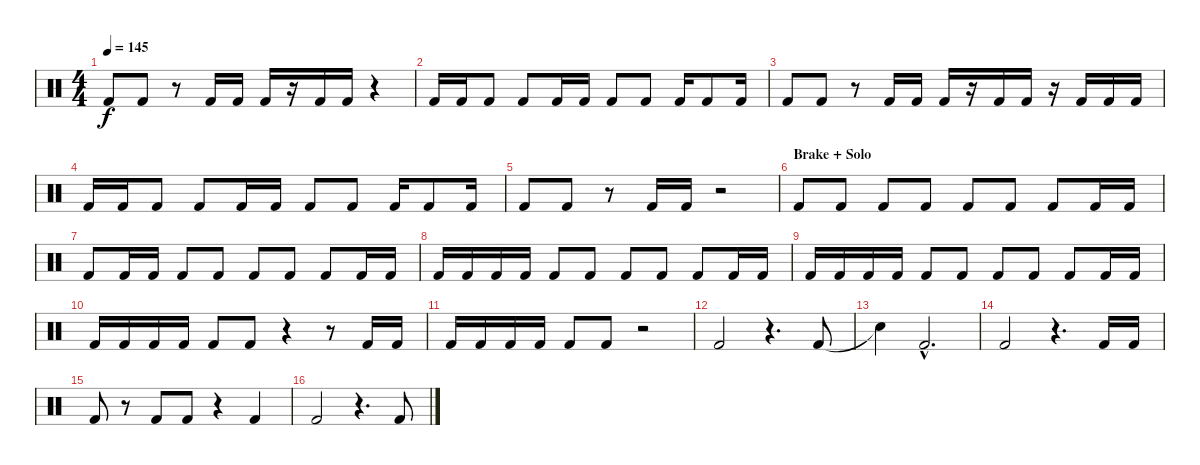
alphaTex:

\track "" {instrument percussion}
\staff {score}
\articulation defaults
\ts (4 4)
\tempo 145
\clef neutral
\ks c "Kick (hit) 2".8{dy f} "Kick (hit) 2".8
r.8 "Kick (hit) 2".16 "Kick (hit) 2".16 "Kick (hit) 2".16 r.16 "Kick (hit) 2".16 "Kick (hit) 2".16 r.4 |
"Kick (hit) 2".16 "Kick (hit) 2".16 "Kick (hit) 2".8 "Kick (hit) 2".8 "Kick (hit) 2".16 "Kick (hit) 2".16 "Kick (hit) 2".8 "Kick (hit) 2".8 "Kick (hit) 2".16 "Kick (hit) 2".8 "Kick (hit) 2".16 |
"Kick (hit) 2".8 "Kick (hit) 2".8 r.8 "Kick (hit) 2".16 "Kick (hit) 2".16 "Kick (hit) 2".16 r.16 "Kick (hit) 2".16 "Kick (hit) 2".16 r.16 "Kick (hit) 2".16 "Kick (hit) 2".16 "Kick (hit) 2".16 |
"Kick (hit) 2".16 "Kick (hit) 2".16 "Kick (hit) 2".8 "Kick (hit) 2".8 "Kick (hit) 2".16 "Kick (hit) 2".16 "Kick (hit) 2".8 "Kick (hit) 2".8 "Kick (hit) 2".16 "Kick (hit) 2".8 "Kick (hit) 2".16 |
"Kick (hit) 2".8 "Kick (hit) 2".8 r.8 "Kick (hit) 2".16 "Kick (hit) 2".16 r.2 |
\section ("" "Brake + Solo")
"Kick (hit) 2".8 "Kick (hit) 2".8 "Kick (hit) 2".8 "Kick (hit) 2".8 "Kick (hit) 2".8 "Kick (hit) 2".8 "Kick (hit) 2".8 "Kick (hit) 2".16 "Kick (hit) 2".16 |
"Kick (hit) 2".8 "Kick (hit) 2".16 "Kick (hit) 2".16 "Kick (hit) 2".8 "Kick (hit) 2".8 "Kick (hit) 2".8 "Kick (hit) 2".8 "Kick (hit) 2".8 "Kick (hit) 2".16 "Kick (hit) 2".16 |
"Kick (hit) 2".16 "Kick (hit) 2".16 "Kick (hit) 2".16 "Kick (hit) 2".16 "Kick (hit) 2".8 "Kick (hit) 2".8 "Kick (hit) 2".8 "Kick (hit) 2".8 "Kick (hit) 2".8 "Kick (hit) 2".16 "Kick (hit) 2".16 |
"Kick (hit) 2".16 "Kick (hit) 2".16 "Kick (hit) 2".16 "Kick (hit) 2".16 "Kick (hit) 2".8 "Kick (hit) 2".8 "Kick (hit) 2".8 "Kick (hit) 2".8 "Kick (hit) 2".8 "Kick (hit) 2".16 "Kick (hit) 2".16 |
"Kick (hit) 2".16 "Kick (hit) 2".16 "Kick (hit) 2".16 "Kick (hit) 2".16 "Kick (hit) 2".8 "Kick (hit) 2".8 r.4 r.8 "Kick (hit) 2".16 "Kick (hit) 2".16 |
"Kick (hit) 2".16 "Kick (hit) 2".16 "Kick (hit) 2".16 "Kick (hit) 2".16 "Kick (hit) 2".8 "Kick (hit) 2".8 r.2 |
"Kick (hit) 2".2 r.4{d} "Kick (hit) 2".8 |
"Snare (hit)"{t}.4 "Kick (hit) 2"{hac}.2{d} |
"Kick (hit) 2".2 r.4{d} "Kick (hit) 2".16 "Kick (hit) 2".16 |
"Kick (hit) 2".8 r.8 "Kick (hit) 2".8 "Kick (hit) 2".8 r.4 "Kick (hit) 2".4 |
"Kick (hit) 2".2 r.4{d} "Kick (hit) 2".8
